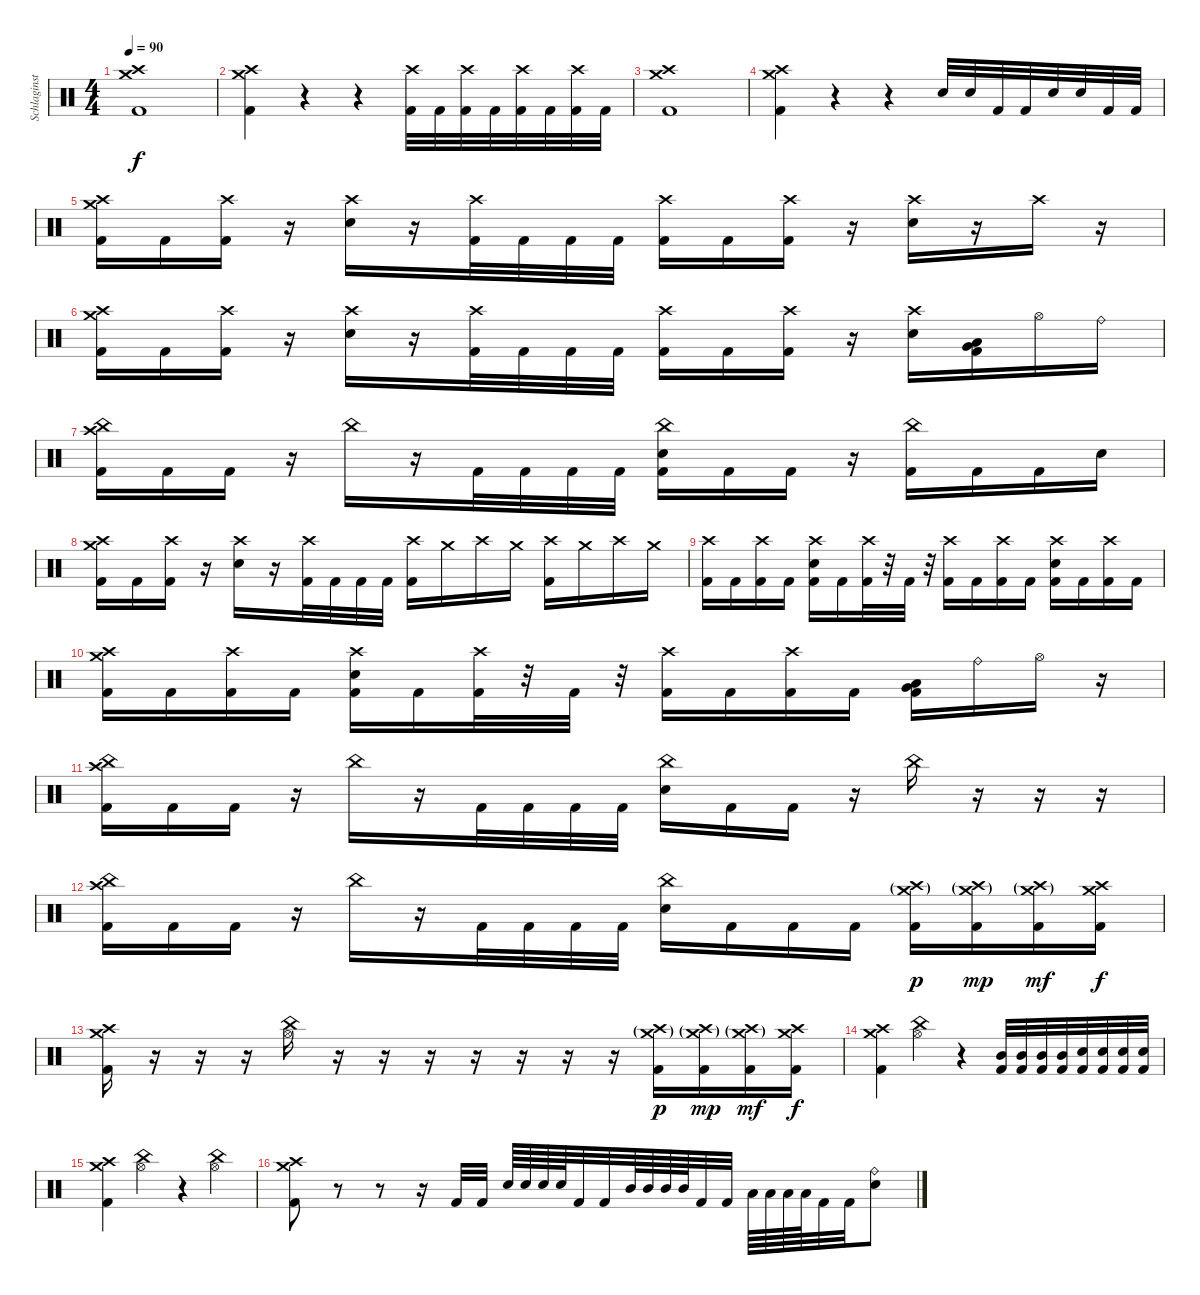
\track ("Schlaginstrumente - Auswahl" "Schlaginst") {instrument percussion}
\staff {score}
\articulation defaults
\ts (4 4)
\tempo 90
\clef neutral
\ks c
("Crash high (hit)" "Crash medium (hit)" "Kick (hit) 2").1{dy f} |
("Crash high (hit)" "Crash medium (hit)" "Kick (hit) 2").4 r.4 r.4 ("Crash high (hit)" "Kick (hit) 2").32 "Kick (hit) 2".32 ("Crash high (hit)" "Kick (hit) 2").32 "Kick (hit) 2".32 ("Crash high (hit)" "Kick (hit) 2").32 "Kick (hit) 2".32 ("Crash high (hit)" "Kick (hit) 2").32 "Kick (hit) 2".32 |
("Crash high (hit)" "Crash medium (hit)" "Kick (hit) 2").1 |
("Crash high (hit)" "Crash medium (hit)" "Kick (hit) 2").4 r.4 r.4 "Electric Snare (hit)".32 "Electric Snare (hit)".32 "Kick (hit) 2".32 "Kick (hit) 2".32 "Electric Snare (hit)".32 "Electric Snare (hit)".32 "Kick (hit) 2".32 "Kick (hit) 2".32 |
("Crash high (hit)" "Crash medium (hit)" "Kick (hit) 2").16 "Kick (hit) 2".16 ("Crash high (hit)" "Kick (hit) 2").16 r.16 ("Crash high (hit)" "Electric Snare (hit)").16 r.16 ("Crash high (hit)" "Kick (hit) 2").32 "Kick (hit) 2".32 "Kick (hit) 2".32 "Kick (hit) 2".32 ("Crash high (hit)" "Kick (hit) 2").16 "Kick (hit) 2".16 ("Crash high (hit)" "Kick (hit) 2").16 r.16 ("Crash high (hit)" "Electric Snare (hit)").16 r.16 "Crash high (hit)".16 r.16 |
("Crash high (hit)" "Crash medium (hit)" "Kick (hit) 2").16 "Kick (hit) 2".16 ("Crash high (hit)" "Kick (hit) 2").16 r.16 ("Crash high (hit)" "Electric Snare (hit)").16 r.16 ("Crash high (hit)" "Kick (hit) 2").32 "Kick (hit) 2".32 "Kick (hit) 2".32 "Kick (hit) 2".32 ("Crash high (hit)" "Kick (hit) 2").16 "Kick (hit) 2".16 ("Crash high (hit)" "Kick (hit) 2").16 r.16 ("Crash high (hit)" "Electric Snare (hit)").16 ("Very Low Tom (hit)" "Low Floor Tom (hit)" "Kick (hit) 2").16 "Hi-Hat (open)".16 "Ride (bell)".16 |
("Crash high (hit)" "China (hit)" "Kick (hit) 2").16 "Kick (hit) 2".16 "Kick (hit) 2".16 r.16 "China (hit)".16 r.16 "Kick (hit) 2".32 "Kick (hit) 2".32 "Kick (hit) 2".32 "Kick (hit) 2".32 ("China (hit)" "Electric Snare (hit)" "Kick (hit) 2").16 "Kick (hit) 2".16 "Kick (hit) 2".16 r.16 ("China (hit)" "Kick (hit) 2").16 "Kick (hit) 2".16 "Kick (hit) 2".16 "Electric Snare (hit)".16 |
("Crash high (hit)" "Crash medium (hit)" "Kick (hit) 2").16 "Kick (hit) 2".16 ("Crash high (hit)" "Kick (hit) 2").16 r.16 ("Crash high (hit)" "Electric Snare (hit)").16 r.16 ("Crash high (hit)" "Kick (hit) 2").32 "Kick (hit) 2".32 "Kick (hit) 2".32 "Kick (hit) 2".32 ("Crash high (hit)" "Kick (hit) 2").16 "Crash medium (hit)".16 "Crash high (hit)".16 "Crash medium (hit)".16 ("Crash high (hit)" "Kick (hit) 2").16 "Crash medium (hit)".16 "Crash high (hit)".16 "Crash medium (hit)".16 |
("Crash high (hit)" "Kick (hit) 2").16 "Kick (hit) 2".16 ("Crash high (hit)" "Kick (hit) 2").16 "Kick (hit) 2".16 ("Crash high (hit)" "Electric Snare (hit)" "Kick (hit) 2").16 "Kick (hit) 2".16 ("Crash high (hit)" "Kick (hit) 2").32 r.32 "Kick (hit) 2".32 r.32 ("Crash high (hit)" "Kick (hit) 2").16 "Kick (hit) 2".16 ("Crash high (hit)" "Kick (hit) 2").16 "Kick (hit) 2".16 ("Crash high (hit)" "Electric Snare (hit)" "Kick (hit) 2").16 "Kick (hit) 2".16 ("Crash high (hit)" "Kick (hit) 2").16 "Kick (hit) 2".16 |
("Crash high (hit)" "Crash medium (hit)" "Kick (hit) 2").16 "Kick (hit) 2".16 ("Crash high (hit)" "Kick (hit) 2").16 "Kick (hit) 2".16 ("Crash high (hit)" "Electric Snare (hit)" "Kick (hit) 2").16 "Kick (hit) 2".16 ("Crash high (hit)" "Kick (hit) 2").32 r.32 "Kick (hit) 2".32 r.32 ("Crash high (hit)" "Kick (hit) 2").16 "Kick (hit) 2".16 ("Crash high (hit)" "Kick (hit) 2").16 "Kick (hit) 2".16 ("Very Low Tom (hit)" "Low Floor Tom (hit)" "Kick (hit) 2").16 "Ride (bell)".16 "Hi-Hat (open)".16 r.16 |
("Crash high (hit)" "China (hit)" "Kick (hit) 2").16 "Kick (hit) 2".16 "Kick (hit) 2".16 r.16 "China (hit)".16 r.16 "Kick (hit) 2".32 "Kick (hit) 2".32 "Kick (hit) 2".32 "Kick (hit) 2".32 ("China (hit)" "Electric Snare (hit)").16 "Kick (hit) 2".16 "Kick (hit) 2".16 r.16 "China (hit)".16 r.16 r.16 r.16 |
("Crash high (hit)" "China (hit)" "Kick (hit) 2").16 "Kick (hit) 2".16 "Kick (hit) 2".16 r.16 "China (hit)".16 r.16 "Kick (hit) 2".32 "Kick (hit) 2".32 "Kick (hit) 2".32 "Kick (hit) 2".32 ("China (hit)" "Electric Snare (hit)").16 "Kick (hit) 2".16 "Kick (hit) 2".16 "Kick (hit) 2".16 ("Crash medium (hit)"{g} "Crash high (hit)"{g} "Kick (hit) 2").16{dy p} ("Crash medium (hit)"{g} "Crash high (hit)"{g} "Kick (hit) 2").16{dy mp} ("Crash medium (hit)"{g} "Crash high (hit)"{g} "Kick (hit) 2").16{dy mf} ("Crash medium (hit)" "Crash high (hit)" "Kick (hit) 2").16{dy f} |
("Crash high (hit)" "Crash medium (hit)" "Kick (hit) 2").16 r.16 r.16 r.16 ("China (hit)" "Hi-Hat (open)").16 r.16 r.16 r.16 r.16 r.16 r.16 r.16 ("Crash medium (hit)"{g} "Crash high (hit)"{g} "Kick (hit) 2").16{dy p} ("Crash medium (hit)"{g} "Crash high (hit)"{g} "Kick (hit) 2").16{dy mp} ("Crash medium (hit)"{g} "Crash high (hit)"{g} "Kick (hit) 2").16{dy mf} ("Crash medium (hit)" "Crash high (hit)" "Kick (hit) 2").16{dy f} |
("Crash high (hit)" "Crash medium (hit)" "Kick (hit) 2").4 ("China (hit)" "Hi-Hat (open)").4 r.4 ("Mid Tom (hit)" "Kick (hit) 2").32 ("Mid Tom (hit)" "Kick (hit) 2").32 ("Mid Tom (hit)" "Kick (hit) 2").32 ("Mid Tom (hit)" "Kick (hit) 2").32 ("Electric Snare (hit)" "Kick (hit) 2").32 ("Electric Snare (hit)" "Kick (hit) 2").32 ("Electric Snare (hit)" "Kick (hit) 2").32 ("Electric Snare (hit)" "Kick (hit) 2").32 |
("Crash high (hit)" "Crash medium (hit)" "Kick (hit) 2").4 ("China (hit)" "Hi-Hat (open)").4 r.4 ("China (hit)" "Hi-Hat (open)").4 |
("Crash high (hit)" "Crash medium (hit)" "Kick (hit) 2").8 r.8 r.8 r.16 "Kick (hit) 2".32 "Kick (hit) 2".32 "Electric Snare (hit)".64 "Electric Snare (hit)".64 "Electric Snare (hit)".64 "Electric Snare (hit)".64 "Kick (hit) 2".32 "Kick (hit) 2".32 "Mid Tom (hit)".64 "Mid Tom (hit)".64 "Mid Tom (hit)".64 "Mid Tom (hit)".64 "Kick (hit) 2".32 "Kick (hit) 2".32 "Low Tom (hit)".64 "Low Tom (hit)".64 "Low Tom (hit)".64 "Low Tom (hit)".64 "Kick (hit) 2".32 "Kick (hit) 2".32 ("Ride (bell)" "Electric Snare (hit)").8
